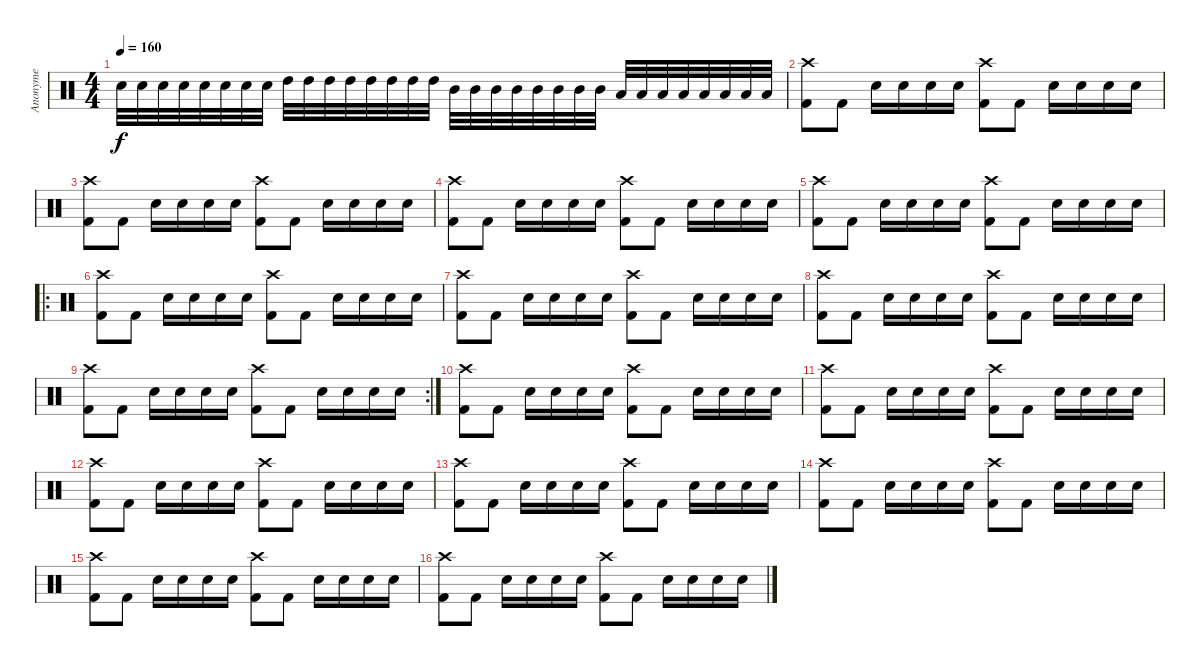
\track ("Anonyme" "Anonyme") {instrument percussion}
\staff {score}
\articulation defaults
\ts (4 4)
\tempo 160
\clef neutral
\ks c "Snare (hit) 2".32{dy f} "Snare (hit) 2".32 "Snare (hit) 2".32 "Snare (hit) 2".32 "Snare (hit) 2".32 "Snare (hit) 2".32 "Snare (hit) 2".32 "Snare (hit) 2".32 "High Tom (hit)".32 "High Tom (hit)".32 "High Tom (hit)".32 "High Tom (hit)".32 "High Tom (hit)".32 "High Tom (hit)".32 "High Tom (hit)".32 "High Tom (hit)".32 "Mid Tom (hit)".32 "Mid Tom (hit)".32 "Mid Tom (hit)".32 "Mid Tom (hit)".32 "Mid Tom (hit)".32 "Mid Tom (hit)".32 "Mid Tom (hit)".32 "Mid Tom (hit)".32 "Low Tom (hit)".32 "Low Tom (hit)".32 "Low Tom (hit)".32 "Low Tom (hit)".32 "Low Tom (hit)".32 "Low Tom (hit)".32 "Low Tom (hit)".32 "Low Tom (hit)".32
|
("Crash high (hit)" "Kick (hit) 2").8 "Kick (hit) 2".8 "Snare (hit) 2".16 "Snare (hit) 2".16 "Snare (hit) 2".16 "Snare (hit) 2".16 ("Crash high (hit)" "Kick (hit) 2").8 "Kick (hit) 2".8 "Snare (hit) 2".16 "Snare (hit) 2".16 "Snare (hit) 2".16 "Snare (hit) 2".16 |
("Crash high (hit)" "Kick (hit) 2").8 "Kick (hit) 2".8 "Snare (hit) 2".16 "Snare (hit) 2".16 "Snare (hit) 2".16 "Snare (hit) 2".16 ("Crash high (hit)" "Kick (hit) 2").8 "Kick (hit) 2".8 "Snare (hit) 2".16 "Snare (hit) 2".16 "Snare (hit) 2".16 "Snare (hit) 2".16 |
("Crash high (hit)" "Kick (hit) 2").8 "Kick (hit) 2".8 "Snare (hit) 2".16 "Snare (hit) 2".16 "Snare (hit) 2".16 "Snare (hit) 2".16 ("Crash high (hit)" "Kick (hit) 2").8 "Kick (hit) 2".8 "Snare (hit) 2".16 "Snare (hit) 2".16 "Snare (hit) 2".16 "Snare (hit) 2".16 |
("Crash high (hit)" "Kick (hit) 2").8 "Kick (hit) 2".8 "Snare (hit) 2".16 "Snare (hit) 2".16 "Snare (hit) 2".16 "Snare (hit) 2".16 ("Crash high (hit)" "Kick (hit) 2").8 "Kick (hit) 2".8 "Snare (hit) 2".16 "Snare (hit) 2".16 "Snare (hit) 2".16 "Snare (hit) 2".16 |
\ro
("Crash high (hit)" "Kick (hit) 2").8 "Kick (hit) 2".8 "Snare (hit) 2".16 "Snare (hit) 2".16 "Snare (hit) 2".16 "Snare (hit) 2".16 ("Crash high (hit)" "Kick (hit) 2").8 "Kick (hit) 2".8 "Snare (hit) 2".16 "Snare (hit) 2".16 "Snare (hit) 2".16 "Snare (hit) 2".16 |
("Crash high (hit)" "Kick (hit) 2").8 "Kick (hit) 2".8 "Snare (hit) 2".16 "Snare (hit) 2".16 "Snare (hit) 2".16 "Snare (hit) 2".16 ("Crash high (hit)" "Kick (hit) 2").8 "Kick (hit) 2".8 "Snare (hit) 2".16 "Snare (hit) 2".16 "Snare (hit) 2".16 "Snare (hit) 2".16 |
("Crash high (hit)" "Kick (hit) 2").8 "Kick (hit) 2".8 "Snare (hit) 2".16 "Snare (hit) 2".16 "Snare (hit) 2".16 "Snare (hit) 2".16 ("Crash high (hit)" "Kick (hit) 2").8 "Kick (hit) 2".8 "Snare (hit) 2".16 "Snare (hit) 2".16 "Snare (hit) 2".16 "Snare (hit) 2".16 |
\rc 2
("Crash high (hit)" "Kick (hit) 2").8 "Kick (hit) 2".8 "Snare (hit) 2".16 "Snare (hit) 2".16 "Snare (hit) 2".16 "Snare (hit) 2".16 ("Crash high (hit)" "Kick (hit) 2").8 "Kick (hit) 2".8 "Snare (hit) 2".16 "Snare (hit) 2".16 "Snare (hit) 2".16 "Snare (hit) 2".16 |
("Crash high (hit)" "Kick (hit) 2").8 "Kick (hit) 2".8 "Snare (hit) 2".16 "Snare (hit) 2".16 "Snare (hit) 2".16 "Snare (hit) 2".16 ("Crash high (hit)" "Kick (hit) 2").8 "Kick (hit) 2".8 "Snare (hit) 2".16 "Snare (hit) 2".16 "Snare (hit) 2".16 "Snare (hit) 2".16 |
("Crash high (hit)" "Kick (hit) 2").8 "Kick (hit) 2".8 "Snare (hit) 2".16 "Snare (hit) 2".16 "Snare (hit) 2".16 "Snare (hit) 2".16 ("Crash high (hit)" "Kick (hit) 2").8 "Kick (hit) 2".8 "Snare (hit) 2".16 "Snare (hit) 2".16 "Snare (hit) 2".16 "Snare (hit) 2".16 |
("Crash high (hit)" "Kick (hit) 2").8 "Kick (hit) 2".8 "Snare (hit) 2".16 "Snare (hit) 2".16 "Snare (hit) 2".16 "Snare (hit) 2".16 ("Crash high (hit)" "Kick (hit) 2").8 "Kick (hit) 2".8 "Snare (hit) 2".16 "Snare (hit) 2".16 "Snare (hit) 2".16 "Snare (hit) 2".16 |
("Crash high (hit)" "Kick (hit) 2").8 "Kick (hit) 2".8 "Snare (hit) 2".16 "Snare (hit) 2".16 "Snare (hit) 2".16 "Snare (hit) 2".16 ("Crash high (hit)" "Kick (hit) 2").8 "Kick (hit) 2".8 "Snare (hit) 2".16 "Snare (hit) 2".16 "Snare (hit) 2".16 "Snare (hit) 2".16 |
("Crash high (hit)" "Kick (hit) 2").8 "Kick (hit) 2".8 "Snare (hit) 2".16 "Snare (hit) 2".16 "Snare (hit) 2".16 "Snare (hit) 2".16 ("Crash high (hit)" "Kick (hit) 2").8 "Kick (hit) 2".8 "Snare (hit) 2".16 "Snare (hit) 2".16 "Snare (hit) 2".16 "Snare (hit) 2".16 |
("Crash high (hit)" "Kick (hit) 2").8 "Kick (hit) 2".8 "Snare (hit) 2".16 "Snare (hit) 2".16 "Snare (hit) 2".16 "Snare (hit) 2".16 ("Crash high (hit)" "Kick (hit) 2").8 "Kick (hit) 2".8 "Snare (hit) 2".16 "Snare (hit) 2".16 "Snare (hit) 2".16 "Snare (hit) 2".16 |
("Crash high (hit)" "Kick (hit) 2").8 "Kick (hit) 2".8 "Snare (hit) 2".16 "Snare (hit) 2".16 "Snare (hit) 2".16 "Snare (hit) 2".16 ("Crash high (hit)" "Kick (hit) 2").8 "Kick (hit) 2".8 "Snare (hit) 2".16 "Snare (hit) 2".16 "Snare (hit) 2".16 "Snare (hit) 2".16
